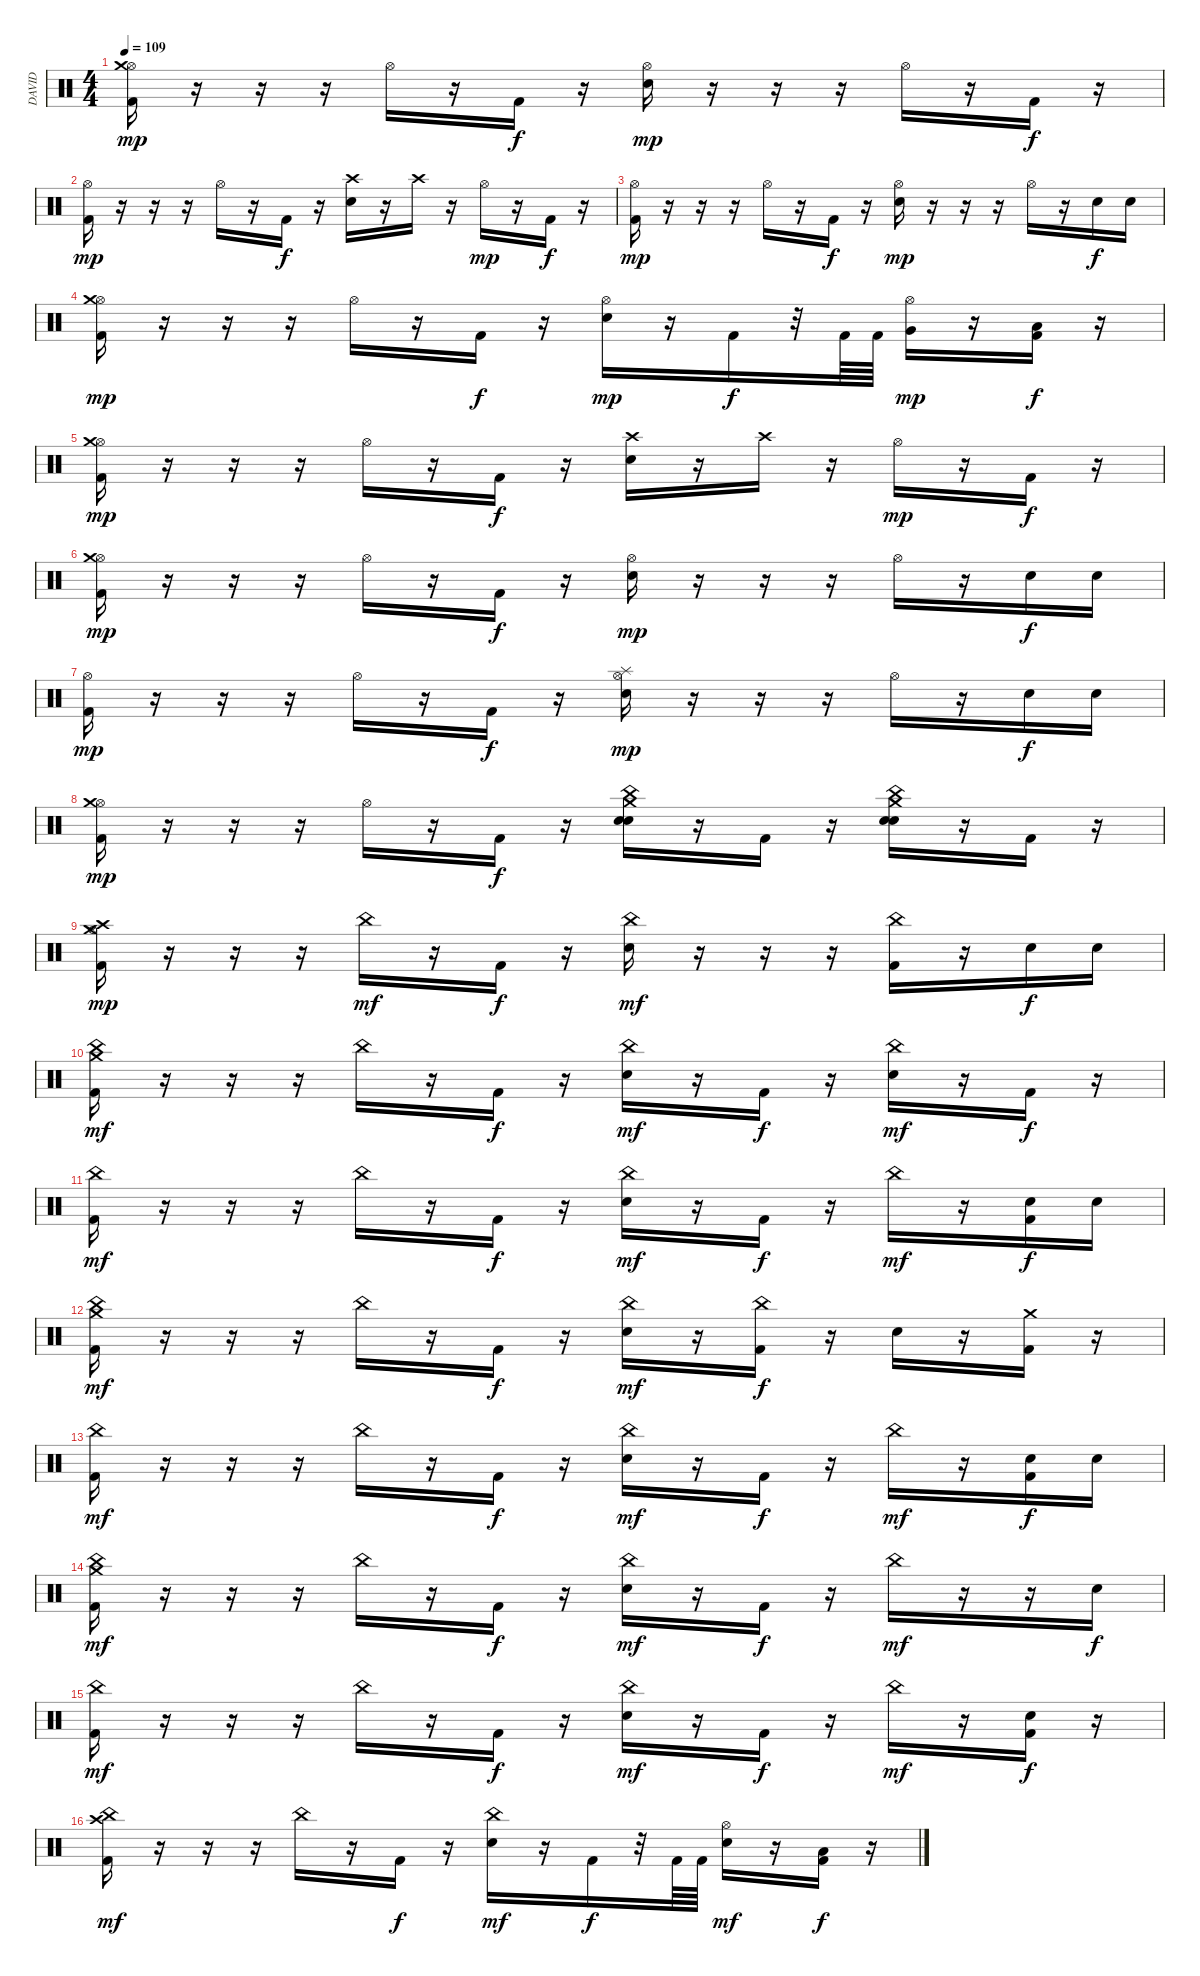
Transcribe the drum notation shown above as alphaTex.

\track ("DAVID" "DAVID") {instrument percussion}
\staff {score}
\articulation defaults
\ts (4 4)
\tempo 109
\clef neutral
\ks c
("Hi-Hat (open)" "Crash medium (hit)" "Kick (hit) 2").16{dy mp} r.16 r.16 r.16 "Hi-Hat (open)".16 r.16 "Kick (hit) 2".16{dy f} r.16 ("Hi-Hat (open)" "Snare (hit) 2").16{dy mp} r.16 r.16 r.16 "Hi-Hat (open)".16 r.16 "Kick (hit) 2".16{dy f} r.16 |
("Hi-Hat (open)" "Kick (hit) 2").16{dy mp} r.16 r.16 r.16 "Hi-Hat (open)".16 r.16 "Kick (hit) 2".16{dy f} r.16 ("Crash high (hit)" "Snare (hit) 2").16 r.16 "Crash high (hit)".16 r.16 "Hi-Hat (open)".16{dy mp} r.16 "Kick (hit) 2".16{dy f} r.16 |
("Hi-Hat (open)" "Kick (hit) 2").16{dy mp} r.16 r.16 r.16 "Hi-Hat (open)".16 r.16 "Kick (hit) 2".16{dy f} r.16 ("Hi-Hat (open)" "Snare (hit) 2").16{dy mp} r.16 r.16 r.16 "Hi-Hat (open)".16 r.16 "Snare (hit) 2".16{dy f} "Snare (hit) 2".16 |
("Hi-Hat (open)" "Crash medium (hit)" "Kick (hit) 2").16{dy mp} r.16 r.16 r.16 "Hi-Hat (open)".16 r.16 "Kick (hit) 2".16{dy f} r.16 ("Hi-Hat (open)" "Snare (hit) 2").16{dy mp} r.16 "Kick (hit) 2".16{dy f} r.32 "Kick (hit) 2".64 "Kick (hit) 2".64 ("Hi-Hat (open)" "Very Low Tom (hit)").16{dy mp} r.16 ("Low Floor Tom (hit)" "Kick (hit) 2").16{dy f} r.16 |
("Hi-Hat (open)" "Crash medium (hit)" "Kick (hit) 2").16{dy mp} r.16 r.16 r.16 "Hi-Hat (open)".16 r.16 "Kick (hit) 2".16{dy f} r.16 ("Crash high (hit)" "Snare (hit) 2").16 r.16 "Crash high (hit)".16 r.16 "Hi-Hat (open)".16{dy mp} r.16 "Kick (hit) 2".16{dy f} r.16 |
("Hi-Hat (open)" "Crash medium (hit)" "Kick (hit) 2").16{dy mp} r.16 r.16 r.16 "Hi-Hat (open)".16 r.16 "Kick (hit) 2".16{dy f} r.16 ("Hi-Hat (open)" "Snare (hit) 2").16{dy mp} r.16 r.16 r.16 "Hi-Hat (open)".16 r.16 "Snare (hit) 2".16{dy f} "Snare (hit) 2".16 |
("Hi-Hat (open)" "Kick (hit) 2").16{dy mp} r.16 r.16 r.16 "Hi-Hat (open)".16 r.16 "Kick (hit) 2".16{dy f} r.16 ("Hi-Hat (open)" "Splash (hit)" "Snare (hit) 2").16{dy mp} r.16 r.16 r.16 "Hi-Hat (open)".16 r.16 "Snare (hit) 2".16{dy f} "Snare (hit) 2".16 |
("Hi-Hat (open)" "Crash medium (hit)" "Kick (hit) 2").16{dy mp} r.16 r.16 r.16 "Hi-Hat (open)".16 r.16 "Kick (hit) 2".16{dy f} r.16 ("China (hit)" "Crash medium (hit)" "Electric Snare (hit)" "Snare (hit) 2").16 r.16 "Kick (hit) 2".16 r.16 ("China (hit)" "Crash medium (hit)" "Electric Snare (hit)" "Snare (hit) 2").16 r.16 "Kick (hit) 2".16 r.16 |
("Hi-Hat (open)" "Crash medium (hit)" "Crash high (hit)" "Kick (hit) 2").16{dy mp} r.16 r.16 r.16 "China (hit)".16{dy mf} r.16 "Kick (hit) 2".16{dy f} r.16 ("China (hit)" "Snare (hit) 2").16{dy mf} r.16 r.16 r.16 ("China (hit)" "Kick (hit) 2").16 r.16 "Snare (hit) 2".16{dy f} "Snare (hit) 2".16 |
("China (hit)" "Crash medium (hit)" "Kick (hit) 2").16{dy mf} r.16 r.16 r.16 "China (hit)".16 r.16 "Kick (hit) 2".16{dy f} r.16 ("China (hit)" "Snare (hit) 2").16{dy mf} r.16 "Kick (hit) 2".16{dy f} r.16 ("China (hit)" "Snare (hit) 2").16{dy mf} r.16 "Kick (hit) 2".16{dy f} r.16 |
("China (hit)" "Kick (hit) 2").16{dy mf} r.16 r.16 r.16 "China (hit)".16 r.16 "Kick (hit) 2".16{dy f} r.16 ("China (hit)" "Snare (hit) 2").16{dy mf} r.16 "Kick (hit) 2".16{dy f} r.16 "China (hit)".16{dy mf} r.16 ("Snare (hit) 2" "Kick (hit) 2").16{dy f} "Snare (hit) 2".16 |
("China (hit)" "Crash medium (hit)" "Kick (hit) 2").16{dy mf} r.16 r.16 r.16 "China (hit)".16 r.16 "Kick (hit) 2".16{dy f} r.16 ("China (hit)" "Snare (hit) 2").16{dy mf} r.16 ("China (hit)" "Kick (hit) 2").16{dy f} r.16 "Snare (hit) 2".16 r.16 ("Crash medium (hit)" "Kick (hit) 2").16 r.16 |
("China (hit)" "Kick (hit) 2").16{dy mf} r.16 r.16 r.16 "China (hit)".16 r.16 "Kick (hit) 2".16{dy f} r.16 ("China (hit)" "Snare (hit) 2").16{dy mf} r.16 "Kick (hit) 2".16{dy f} r.16 "China (hit)".16{dy mf} r.16 ("Snare (hit) 2" "Kick (hit) 2").16{dy f} "Snare (hit) 2".16 |
("China (hit)" "Crash medium (hit)" "Kick (hit) 2").16{dy mf} r.16 r.16 r.16 "China (hit)".16 r.16 "Kick (hit) 2".16{dy f} r.16 ("China (hit)" "Snare (hit) 2").16{dy mf} r.16 "Kick (hit) 2".16{dy f} r.16 "China (hit)".16{dy mf} r.16 r.16 "Snare (hit) 2".16{dy f} |
("China (hit)" "Kick (hit) 2").16{dy mf} r.16 r.16 r.16 "China (hit)".16 r.16 "Kick (hit) 2".16{dy f} r.16 ("China (hit)" "Snare (hit) 2").16{dy mf} r.16 "Kick (hit) 2".16{dy f} r.16 "China (hit)".16{dy mf} r.16 ("Snare (hit) 2" "Kick (hit) 2").16{dy f} r.16 |
("China (hit)" "Crash high (hit)" "Kick (hit) 2").16{dy mf} r.16 r.16 r.16 "China (hit)".16 r.16 "Kick (hit) 2".16{dy f} r.16 ("China (hit)" "Snare (hit) 2").16{dy mf} r.16 "Kick (hit) 2".16{dy f} r.32 "Kick (hit) 2".64 "Kick (hit) 2".64 ("Hi-Hat (open)" "Snare (hit) 2").16{dy mf} r.16 ("Low Floor Tom (hit)" "Kick (hit) 2").16{dy f} r.16
